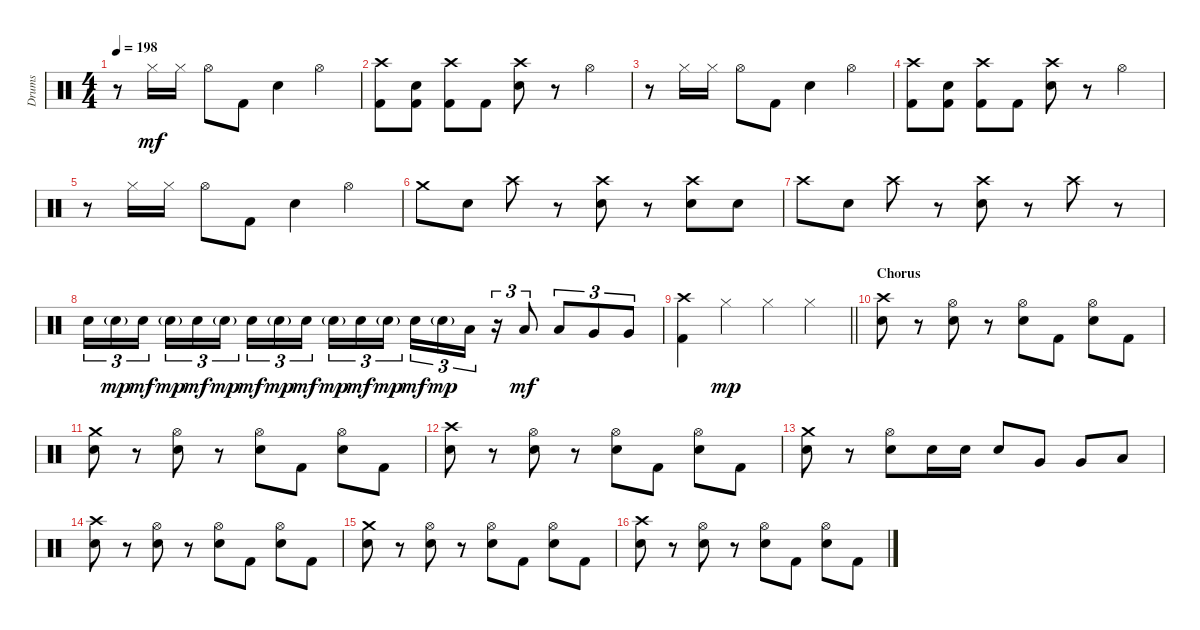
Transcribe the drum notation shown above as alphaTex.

\track ("Drums" "Drums") {instrument percussion}
\staff {score}
\articulation defaults
\ts (4 4)
\tempo 198
\clef neutral
\ks c
r.8{dy mf} "Hi-Hat (closed)".16 "Hi-Hat (closed)".16 "Hi-Hat (open)".8 "Kick (hit) 2".8 "Snare (hit) 2".4 "Hi-Hat (open)".4 |
("Crash high (hit)" "Kick (hit) 2").8 ("Snare (hit) 2" "Kick (hit) 2").8 ("Crash high (hit)" "Kick (hit) 2").8 "Kick (hit) 2".8 ("Crash high (hit)" "Snare (hit) 2").8 r.8 "Hi-Hat (open)".4 |
r.8 "Hi-Hat (closed)".16 "Hi-Hat (closed)".16 "Hi-Hat (open)".8 "Kick (hit) 2".8 "Snare (hit) 2".4 "Hi-Hat (open)".4 |
("Crash high (hit)" "Kick (hit) 2").8 ("Snare (hit) 2" "Kick (hit) 2").8 ("Crash high (hit)" "Kick (hit) 2").8 "Kick (hit) 2".8 ("Crash high (hit)" "Snare (hit) 2").8 r.8 "Hi-Hat (open)".4 |
r.8 "Hi-Hat (closed)".16 "Hi-Hat (closed)".16 "Hi-Hat (open)".8 "Kick (hit) 2".8 "Snare (hit) 2".4 "Hi-Hat (open)".4 |
"Crash medium (hit)".8 "Snare (hit) 2".8 "Crash high (hit)".8 r.8 ("Crash high (hit)" "Snare (hit) 2").8 r.8 ("Crash high (hit)" "Snare (hit) 2").8 "Snare (hit) 2".8 |
"Crash high (hit)".8 "Snare (hit) 2".8 "Crash high (hit)".8 r.8 ("Crash high (hit)" "Snare (hit) 2").8 r.8 "Crash high (hit)".8 r.8 |
"Snare (hit) 2".16{tu (3 2)} "Snare (hit) 2"{g}.16{tu (3 2) dy mp} "Snare (hit) 2".16{tu (3 2) dy mf beam splitsecondary} "Snare (hit) 2"{g}.16{tu (3 2) dy mp} "Snare (hit) 2".16{tu (3 2) dy mf} "Snare (hit) 2"{g}.16{tu (3 2) dy mp} "Snare (hit) 2".16{tu (3 2) dy mf} "Snare (hit) 2"{g}.16{tu (3 2) dy mp} "Snare (hit) 2".16{tu (3 2) dy mf beam splitsecondary} "Snare (hit) 2"{g}.16{tu (3 2) dy mp} "Snare (hit) 2".16{tu (3 2) dy mf} "Snare (hit) 2"{g}.16{tu (3 2) dy mp} "Snare (hit) 2".16{tu (3 2) dy mf} "Snare (hit) 2"{g}.16{tu (3 2) dy mp} "Low Floor Tom (hit)".16{tu (3 2)} r.16{tu (3 2)} "Low Floor Tom (hit)".8{tu (3 2) dy mf} "Low Floor Tom (hit)".8{tu (3 2)} "Very Low Tom (hit)".8{tu (3 2)} "Very Low Tom (hit)".8{tu (3 2)} |
\barLineRight lightlight
("Crash high (hit)" "Kick (hit) 2").4 "Hi-Hat (closed)".4{dy mp} "Hi-Hat (closed)".4 "Hi-Hat (closed)".4 |
\section ("" "Chorus")
("Crash high (hit)" "Snare (hit) 2").8 r.8 ("Hi-Hat (open)" "Snare (hit) 2").8 r.8 ("Hi-Hat (open)" "Snare (hit) 2").8 "Kick (hit) 2".8 ("Hi-Hat (open)" "Snare (hit) 2").8 "Kick (hit) 2".8 |
("Crash medium (hit)" "Snare (hit) 2").8 r.8 ("Hi-Hat (open)" "Snare (hit) 2").8 r.8 ("Hi-Hat (open)" "Snare (hit) 2").8 "Kick (hit) 2".8 ("Hi-Hat (open)" "Snare (hit) 2").8 "Kick (hit) 2".8 |
("Crash high (hit)" "Snare (hit) 2").8 r.8 ("Hi-Hat (open)" "Snare (hit) 2").8 r.8 ("Hi-Hat (open)" "Snare (hit) 2").8 "Kick (hit) 2".8 ("Hi-Hat (open)" "Snare (hit) 2").8 "Kick (hit) 2".8 |
("Crash medium (hit)" "Snare (hit) 2").8 r.8 ("Hi-Hat (open)" "Snare (hit) 2").8 "Snare (hit) 2".16 "Snare (hit) 2".16 "Snare (hit) 2".8 "Very Low Tom (hit)".8 "Very Low Tom (hit)".8 "Low Floor Tom (hit)".8 |
("Crash high (hit)" "Snare (hit) 2").8 r.8 ("Hi-Hat (open)" "Snare (hit) 2").8 r.8 ("Hi-Hat (open)" "Snare (hit) 2").8 "Kick (hit) 2".8 ("Hi-Hat (open)" "Snare (hit) 2").8 "Kick (hit) 2".8 |
("Crash medium (hit)" "Snare (hit) 2").8 r.8 ("Hi-Hat (open)" "Snare (hit) 2").8 r.8 ("Hi-Hat (open)" "Snare (hit) 2").8 "Kick (hit) 2".8 ("Hi-Hat (open)" "Snare (hit) 2").8 "Kick (hit) 2".8 |
("Crash high (hit)" "Snare (hit) 2").8 r.8 ("Hi-Hat (open)" "Snare (hit) 2").8 r.8 ("Hi-Hat (open)" "Snare (hit) 2").8 "Kick (hit) 2".8 ("Hi-Hat (open)" "Snare (hit) 2").8 "Kick (hit) 2".8
